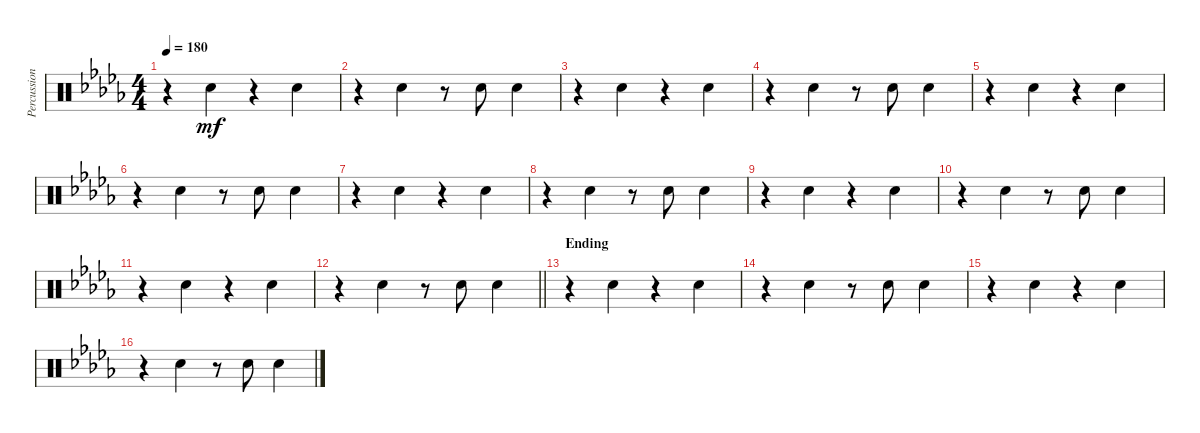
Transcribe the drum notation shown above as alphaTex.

\track ("Percussion I (Tainaka Ritsu)" "Percussion") {instrument percussion}
\staff {score}
\articulation defaults
\ts (4 4)
\tempo 180
\clef neutral
\ks db
r.4{dy mf} "Hand Clap (hit)".4 r.4 "Hand Clap (hit)".4 |
r.4 "Hand Clap (hit)".4 r.8 "Hand Clap (hit)".8 "Hand Clap (hit)".4 |
r.4 "Hand Clap (hit)".4 r.4 "Hand Clap (hit)".4 |
r.4 "Hand Clap (hit)".4 r.8 "Hand Clap (hit)".8 "Hand Clap (hit)".4 |
r.4 "Hand Clap (hit)".4 r.4 "Hand Clap (hit)".4 |
r.4 "Hand Clap (hit)".4 r.8 "Hand Clap (hit)".8 "Hand Clap (hit)".4 |
r.4 "Hand Clap (hit)".4 r.4 "Hand Clap (hit)".4 |
r.4 "Hand Clap (hit)".4 r.8 "Hand Clap (hit)".8 "Hand Clap (hit)".4 |
r.4 "Hand Clap (hit)".4 r.4 "Hand Clap (hit)".4 |
r.4 "Hand Clap (hit)".4 r.8 "Hand Clap (hit)".8 "Hand Clap (hit)".4 |
r.4 "Hand Clap (hit)".4 r.4 "Hand Clap (hit)".4 |
\barLineRight lightlight
r.4 "Hand Clap (hit)".4 r.8 "Hand Clap (hit)".8 "Hand Clap (hit)".4 |
\section ("" "Ending")
r.4 "Hand Clap (hit)".4 r.4 "Hand Clap (hit)".4 |
r.4 "Hand Clap (hit)".4 r.8 "Hand Clap (hit)".8 "Hand Clap (hit)".4 |
r.4 "Hand Clap (hit)".4 r.4 "Hand Clap (hit)".4 |
r.4 "Hand Clap (hit)".4 r.8 "Hand Clap (hit)".8 "Hand Clap (hit)".4
